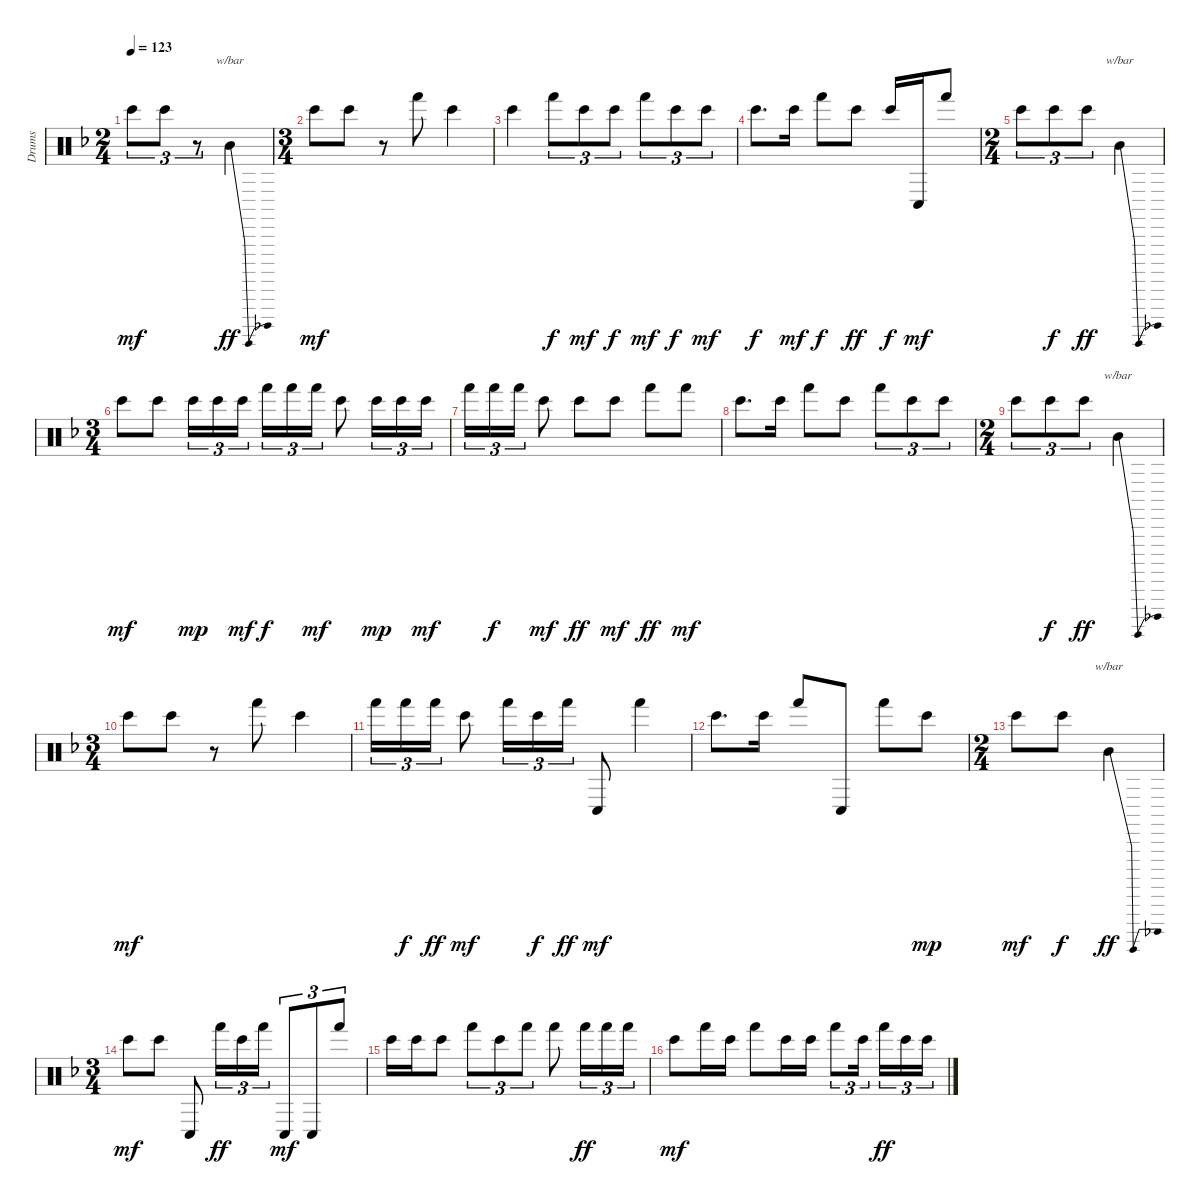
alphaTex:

\track ("Drums" "Drums") {instrument percussion}
\staff {score}
\articulation defaults
\ts (2 4)
\tempo 123
\clef neutral
\ks dminor "Bongo High (hit)".8{tu (3 2) dy mf} "Bongo High (hit)".8{tu (3 2)}
r.8{tu (3 2)} "Mid Tom (hit)".4{tbe (dip default 0 0 30 -12 60 0) dy ff} |
\ts (3 4)
"Bongo High (hit)".8{dy mf} "Bongo High (hit)".8 r.8 "Hand (hit)".8 "Bongo High (hit)".4 |
"Bongo High (hit)".4 "Hand (hit)".8{tu (3 2) dy f} "Bongo High (hit)".8{tu (3 2) dy mf} "Bongo High (hit)".8{tu (3 2) dy f} "Hand (hit)".8{tu (3 2) dy mf} "Bongo High (hit)".8{tu (3 2) dy f} "Bongo High (hit)".8{tu (3 2) dy mf} |
"Bongo High (hit)".8{d dy f} "Bongo High (hit)".16{dy mf} "Hand (hit)".8{dy f} "Bongo High (hit)".8{dy ff} "Bongo High (hit)".16{dy f} "Conga low (hit)".16{dy mf} "Hand (hit)".8 |
\ts (2 4)
"Bongo High (hit)".8{tu (3 2)} "Bongo High (hit)".8{tu (3 2) dy f} "Bongo High (hit)".8{tu (3 2) dy ff} "Mid Tom (hit)".4{tbe (dip default 0 0 30 -12 60 0)} |
\ts (3 4)
"Bongo High (hit)".8{dy mf} "Bongo High (hit)".8 "Bongo High (hit)".16{tu (3 2) dy mp} "Bongo High (hit)".16{tu (3 2)} "Bongo High (hit)".16{tu (3 2) dy mf beam splitsecondary} "Hand (hit)".16{tu (3 2) dy f} "Hand (hit)".16{tu (3 2)} "Hand (hit)".16{tu (3 2) dy mf} "Bongo High (hit)".8 "Bongo High (hit)".16{tu (3 2) dy mp} "Bongo High (hit)".16{tu (3 2)} "Bongo High (hit)".16{tu (3 2) dy mf} |
"Hand (hit)".16{tu (3 2)} "Hand (hit)".16{tu (3 2) dy f} "Hand (hit)".16{tu (3 2)} "Bongo High (hit)".8{dy mf} "Bongo High (hit)".8{dy ff} "Bongo High (hit)".8{dy mf} "Hand (hit)".8{dy ff} "Hand (hit)".8{dy mf} |
"Bongo High (hit)".8{d} "Bongo High (hit)".16 "Hand (hit)".8 "Bongo High (hit)".8 "Hand (hit)".8{tu (3 2)} "Bongo High (hit)".8{tu (3 2)} "Bongo High (hit)".8{tu (3 2)} |
\ts (2 4)
"Bongo High (hit)".8{tu (3 2)} "Bongo High (hit)".8{tu (3 2) dy f} "Bongo High (hit)".8{tu (3 2) dy ff} "Mid Tom (hit)".4{tbe (dip default 0 0 30 -12 60 0)} |
\ts (3 4)
"Bongo High (hit)".8{dy mf} "Bongo High (hit)".8 r.8 "Hand (hit)".8 "Bongo High (hit)".4 |
"Hand (hit)".16{tu (3 2)} "Hand (hit)".16{tu (3 2) dy f} "Hand (hit)".16{tu (3 2) dy ff} "Bongo High (hit)".8{dy mf} "Hand (hit)".16{tu (3 2)} "Bongo High (hit)".16{tu (3 2) dy f} "Hand (hit)".16{tu (3 2) dy ff} "Conga low (hit)".8{dy mf} "Hand (hit)".4 |
"Bongo High (hit)".8{d} "Bongo High (hit)".16 "Hand (hit)".8 "Conga low (hit)".8 "Hand (hit)".8 "Bongo High (hit)".8{dy mp} |
\ts (2 4)
"Bongo High (hit)".8{dy mf} "Bongo High (hit)".8{dy f} "Mid Tom (hit)".4{tbe (dip default 0 0 30 -12 60 0) dy ff} |
\ts (3 4)
"Bongo High (hit)".8{dy mf} "Bongo High (hit)".8 "Conga low (hit)".8 "Hand (hit)".16{tu (3 2) dy ff} "Bongo High (hit)".16{tu (3 2)} "Hand (hit)".16{tu (3 2)} "Conga low (hit)".8{tu (3 2) dy mf} "Conga low (hit)".8{tu (3 2)} "Hand (hit)".8{tu (3 2)} |
"Bongo High (hit)".16 "Bongo High (hit)".16 "Bongo High (hit)".8 "Hand (hit)".8{tu (3 2)} "Bongo High (hit)".8{tu (3 2)} "Hand (hit)".8{tu (3 2)} "Hand (hit)".8 "Hand (hit)".16{tu (3 2) dy ff} "Hand (hit)".16{tu (3 2)} "Hand (hit)".16{tu (3 2)} |
"Bongo High (hit)".8{dy mf} "Hand (hit)".16 "Bongo High (hit)".16 "Hand (hit)".8 "Bongo High (hit)".16 "Bongo High (hit)".16 "Hand (hit)".8{tu (3 2)} "Bongo High (hit)".16{tu (3 2) beam splitsecondary} "Hand (hit)".16{tu (3 2) dy ff} "Bongo High (hit)".16{tu (3 2)} "Bongo High (hit)".16{tu (3 2)}
